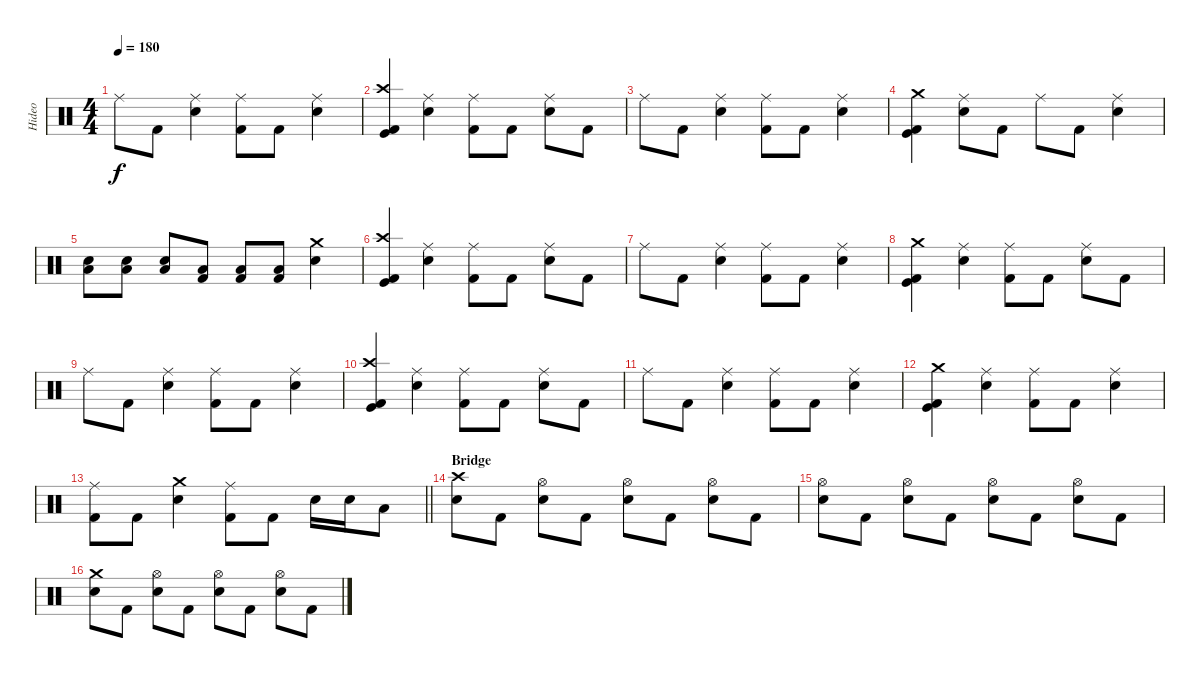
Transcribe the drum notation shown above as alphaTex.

\track ("Hideo" "Hideo") {instrument percussion}
\staff {score}
\articulation defaults
\ts (4 4)
\tempo 180
\clef neutral
\ks c "Ride (middle)".8{dy f} "Kick (hit) 2".8
("Ride (middle)" "Electric Snare (hit)").4 ("Ride (middle)" "Kick (hit) 2").8 "Kick (hit) 2".8 ("Ride (middle)" "Electric Snare (hit)").4 |
("Crash high (hit)" "Kick (hit) 2" "Kick (hit)").4 ("Ride (middle)" "Electric Snare (hit)").4 ("Ride (middle)" "Kick (hit) 2").8 "Kick (hit) 2".8 ("Ride (middle)" "Electric Snare (hit)").8 "Kick (hit) 2".8 |
"Ride (middle)".8 "Kick (hit) 2".8 ("Ride (middle)" "Electric Snare (hit)").4 ("Ride (middle)" "Kick (hit) 2").8 "Kick (hit) 2".8 ("Ride (middle)" "Electric Snare (hit)").4 |
("Crash medium (hit)" "Kick (hit) 2" "Kick (hit)").4 ("Ride (middle)" "Electric Snare (hit)").8 "Kick (hit) 2".8 "Ride (middle)".8 "Kick (hit) 2".8 ("Ride (middle)" "Electric Snare (hit)").4 |
("Low Floor Tom (hit)" "Electric Snare (hit)").8 ("Low Floor Tom (hit)" "Electric Snare (hit)").8 ("Low Floor Tom (hit)" "Electric Snare (hit)").8 ("Low Tom (hit)" "Kick (hit) 2").8 ("Low Tom (hit)" "Kick (hit) 2").8 ("Low Tom (hit)" "Kick (hit) 2").8 ("Crash medium (hit)" "Electric Snare (hit)").4 |
("Crash high (hit)" "Kick (hit) 2" "Kick (hit)").4 ("Ride (middle)" "Electric Snare (hit)").4 ("Ride (middle)" "Kick (hit) 2").8 "Kick (hit) 2".8 ("Ride (middle)" "Electric Snare (hit)").8 "Kick (hit) 2".8 |
"Ride (middle)".8 "Kick (hit) 2".8 ("Ride (middle)" "Electric Snare (hit)").4 ("Ride (middle)" "Kick (hit) 2").8 "Kick (hit) 2".8 ("Ride (middle)" "Electric Snare (hit)").4 |
("Crash medium (hit)" "Kick (hit) 2" "Kick (hit)").4 ("Ride (middle)" "Electric Snare (hit)").4 ("Ride (middle)" "Kick (hit) 2").8 "Kick (hit) 2".8 ("Ride (middle)" "Electric Snare (hit)").8 "Kick (hit) 2".8 |
"Ride (middle)".8 "Kick (hit) 2".8 ("Ride (middle)" "Electric Snare (hit)").4 ("Ride (middle)" "Kick (hit) 2").8 "Kick (hit) 2".8 ("Ride (middle)" "Electric Snare (hit)").4 |
("Crash high (hit)" "Kick (hit) 2" "Kick (hit)").4 ("Ride (middle)" "Electric Snare (hit)").4 ("Ride (middle)" "Kick (hit) 2").8 "Kick (hit) 2".8 ("Ride (middle)" "Electric Snare (hit)").8 "Kick (hit) 2".8 |
"Ride (middle)".8 "Kick (hit) 2".8 ("Ride (middle)" "Electric Snare (hit)").4 ("Ride (middle)" "Kick (hit) 2").8 "Kick (hit) 2".8 ("Ride (middle)" "Electric Snare (hit)").4 |
("Crash medium (hit)" "Kick (hit) 2" "Kick (hit)").4 ("Ride (middle)" "Electric Snare (hit)").4 ("Ride (middle)" "Kick (hit) 2").8 "Kick (hit) 2".8 ("Ride (middle)" "Electric Snare (hit)").4 |
\barLineRight lightlight
("Ride (middle)" "Kick (hit) 2").8 "Kick (hit) 2".8 ("Crash medium (hit)" "Electric Snare (hit)").4 ("Ride (middle)" "Kick (hit) 2").8 "Kick (hit) 2".8 "Electric Snare (hit)".16 "Electric Snare (hit)".16 "Low Tom (hit)".8 |
\section ("" "Bridge")
("Crash high (hit)" "Electric Snare (hit)").8 "Kick (hit) 2".8 ("Hi-Hat (open)" "Electric Snare (hit)").8 "Kick (hit) 2".8 ("Hi-Hat (open)" "Electric Snare (hit)").8 "Kick (hit) 2".8 ("Hi-Hat (open)" "Electric Snare (hit)").8 "Kick (hit) 2".8 |
("Hi-Hat (open)" "Electric Snare (hit)").8 "Kick (hit) 2".8 ("Hi-Hat (open)" "Electric Snare (hit)").8 "Kick (hit) 2".8 ("Hi-Hat (open)" "Electric Snare (hit)").8 "Kick (hit) 2".8 ("Hi-Hat (open)" "Electric Snare (hit)").8 "Kick (hit) 2".8 |
("Crash medium (hit)" "Electric Snare (hit)").8 "Kick (hit) 2".8 ("Hi-Hat (open)" "Electric Snare (hit)").8 "Kick (hit) 2".8 ("Hi-Hat (open)" "Electric Snare (hit)").8 "Kick (hit) 2".8 ("Hi-Hat (open)" "Electric Snare (hit)").8 "Kick (hit) 2".8
